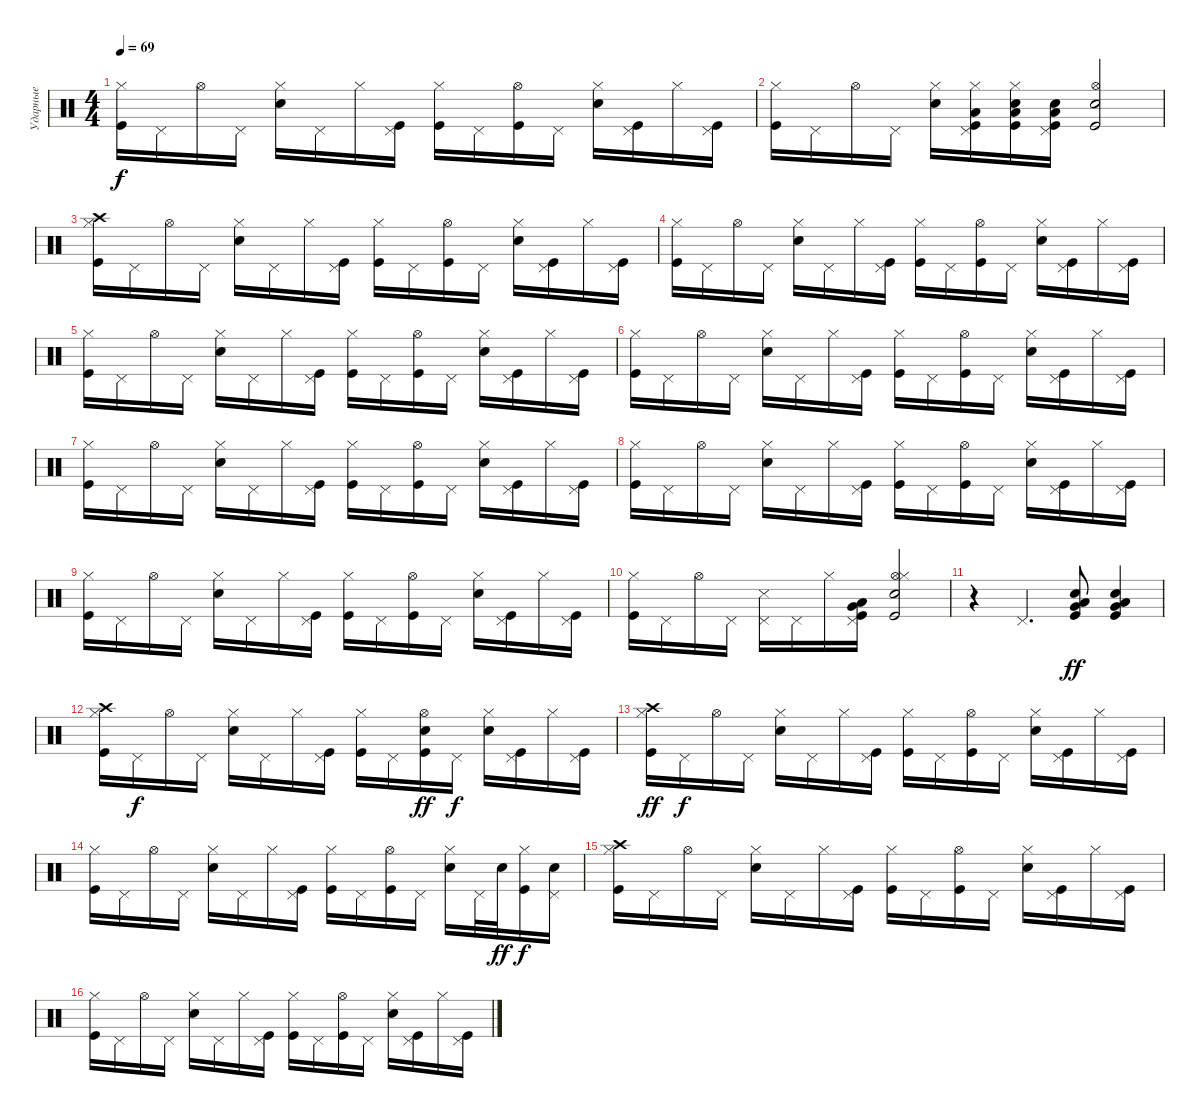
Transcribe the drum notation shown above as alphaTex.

\track ("Ударные" "Ударные") {instrument percussion}
\staff {score}
\articulation defaults
\ts (4 4)
\tempo 69
\clef neutral
\ks c
("Kick (hit)" "Hi-Hat (closed)").16{dy f} "Pedal Hi-Hat (hit)".16 "Hi-Hat (open)".16 "Pedal Hi-Hat (hit)".16 ("Snare (hit) 2" "Hi-Hat (closed)").16 "Pedal Hi-Hat (hit)".16 "Hi-Hat (closed)".16 ("Pedal Hi-Hat (hit)" "Kick (hit)").16 ("Kick (hit)" "Hi-Hat (closed)").16 "Pedal Hi-Hat (hit)".16 ("Kick (hit)" "Hi-Hat (open)").16 "Pedal Hi-Hat (hit)".16 ("Snare (hit) 2" "Hi-Hat (closed)").16 ("Pedal Hi-Hat (hit)" "Kick (hit)").16 "Hi-Hat (closed)".16 ("Pedal Hi-Hat (hit)" "Kick (hit)").16 |
("Kick (hit)" "Hi-Hat (closed)").16 "Pedal Hi-Hat (hit)".16 "Hi-Hat (open)".16 "Pedal Hi-Hat (hit)".16 ("Hi-Hat (closed)" "Snare (hit) 2").16 ("Hi-Hat (closed)" "Kick (hit)" "Pedal Hi-Hat (hit)" "Low Floor Tom (hit)").16 ("Hi-Hat (closed)" "Snare (hit) 2" "Low Floor Tom (hit)" "Kick (hit)").16 ("Pedal Hi-Hat (hit)" "Kick (hit)" "Snare (hit) 2" "Low Floor Tom (hit)").16 ("Hi-Hat (open)" "Snare (hit) 2" "Kick (hit)").2 |
("Kick (hit)" "Hi-Hat (closed)" "Crash high (hit)").16 "Pedal Hi-Hat (hit)".16 "Hi-Hat (open)".16 "Pedal Hi-Hat (hit)".16 ("Snare (hit) 2" "Hi-Hat (closed)").16 "Pedal Hi-Hat (hit)".16 "Hi-Hat (closed)".16 ("Pedal Hi-Hat (hit)" "Kick (hit)").16 ("Kick (hit)" "Hi-Hat (closed)").16 "Pedal Hi-Hat (hit)".16 ("Kick (hit)" "Hi-Hat (open)").16 "Pedal Hi-Hat (hit)".16 ("Snare (hit) 2" "Hi-Hat (closed)").16 ("Pedal Hi-Hat (hit)" "Kick (hit)").16 "Hi-Hat (closed)".16 ("Pedal Hi-Hat (hit)" "Kick (hit)").16 |
("Kick (hit)" "Hi-Hat (closed)").16 "Pedal Hi-Hat (hit)".16 "Hi-Hat (open)".16 "Pedal Hi-Hat (hit)".16 ("Snare (hit) 2" "Hi-Hat (closed)").16 "Pedal Hi-Hat (hit)".16 "Hi-Hat (closed)".16 ("Pedal Hi-Hat (hit)" "Kick (hit)").16 ("Kick (hit)" "Hi-Hat (closed)").16 "Pedal Hi-Hat (hit)".16 ("Kick (hit)" "Hi-Hat (open)").16 "Pedal Hi-Hat (hit)".16 ("Snare (hit) 2" "Hi-Hat (closed)").16 ("Pedal Hi-Hat (hit)" "Kick (hit)").16 "Hi-Hat (closed)".16 ("Pedal Hi-Hat (hit)" "Kick (hit)").16 |
("Kick (hit)" "Hi-Hat (closed)").16 "Pedal Hi-Hat (hit)".16 "Hi-Hat (open)".16 "Pedal Hi-Hat (hit)".16 ("Snare (hit) 2" "Hi-Hat (closed)").16 "Pedal Hi-Hat (hit)".16 "Hi-Hat (closed)".16 ("Pedal Hi-Hat (hit)" "Kick (hit)").16 ("Kick (hit)" "Hi-Hat (closed)").16 "Pedal Hi-Hat (hit)".16 ("Kick (hit)" "Hi-Hat (open)").16 "Pedal Hi-Hat (hit)".16 ("Snare (hit) 2" "Hi-Hat (closed)").16 ("Pedal Hi-Hat (hit)" "Kick (hit)").16 "Hi-Hat (closed)".16 ("Pedal Hi-Hat (hit)" "Kick (hit)").16 |
("Kick (hit)" "Hi-Hat (closed)").16 "Pedal Hi-Hat (hit)".16 "Hi-Hat (open)".16 "Pedal Hi-Hat (hit)".16 ("Snare (hit) 2" "Hi-Hat (closed)").16 "Pedal Hi-Hat (hit)".16 "Hi-Hat (closed)".16 ("Pedal Hi-Hat (hit)" "Kick (hit)").16 ("Kick (hit)" "Hi-Hat (closed)").16 "Pedal Hi-Hat (hit)".16 ("Kick (hit)" "Hi-Hat (open)").16 "Pedal Hi-Hat (hit)".16 ("Snare (hit) 2" "Hi-Hat (closed)").16 ("Pedal Hi-Hat (hit)" "Kick (hit)").16 "Hi-Hat (closed)".16 ("Pedal Hi-Hat (hit)" "Kick (hit)").16 |
("Kick (hit)" "Hi-Hat (closed)").16 "Pedal Hi-Hat (hit)".16 "Hi-Hat (open)".16 "Pedal Hi-Hat (hit)".16 ("Snare (hit) 2" "Hi-Hat (closed)").16 "Pedal Hi-Hat (hit)".16 "Hi-Hat (closed)".16 ("Pedal Hi-Hat (hit)" "Kick (hit)").16 ("Kick (hit)" "Hi-Hat (closed)").16 "Pedal Hi-Hat (hit)".16 ("Kick (hit)" "Hi-Hat (open)").16 "Pedal Hi-Hat (hit)".16 ("Snare (hit) 2" "Hi-Hat (closed)").16 ("Pedal Hi-Hat (hit)" "Kick (hit)").16 "Hi-Hat (closed)".16 ("Pedal Hi-Hat (hit)" "Kick (hit)").16 |
("Kick (hit)" "Hi-Hat (closed)").16 "Pedal Hi-Hat (hit)".16 "Hi-Hat (open)".16 "Pedal Hi-Hat (hit)".16 ("Snare (hit) 2" "Hi-Hat (closed)").16 "Pedal Hi-Hat (hit)".16 "Hi-Hat (closed)".16 ("Pedal Hi-Hat (hit)" "Kick (hit)").16 ("Kick (hit)" "Hi-Hat (closed)").16 "Pedal Hi-Hat (hit)".16 ("Kick (hit)" "Hi-Hat (open)").16 "Pedal Hi-Hat (hit)".16 ("Snare (hit) 2" "Hi-Hat (closed)").16 ("Pedal Hi-Hat (hit)" "Kick (hit)").16 "Hi-Hat (closed)".16 ("Pedal Hi-Hat (hit)" "Kick (hit)").16 |
("Kick (hit)" "Hi-Hat (closed)").16 "Pedal Hi-Hat (hit)".16 "Hi-Hat (open)".16 "Pedal Hi-Hat (hit)".16 ("Snare (hit) 2" "Hi-Hat (closed)").16 "Pedal Hi-Hat (hit)".16 "Hi-Hat (closed)".16 ("Pedal Hi-Hat (hit)" "Kick (hit)").16 ("Kick (hit)" "Hi-Hat (closed)").16 "Pedal Hi-Hat (hit)".16 ("Kick (hit)" "Hi-Hat (open)").16 "Pedal Hi-Hat (hit)".16 ("Snare (hit) 2" "Hi-Hat (closed)").16 ("Pedal Hi-Hat (hit)" "Kick (hit)").16 "Hi-Hat (closed)".16 ("Pedal Hi-Hat (hit)" "Kick (hit)").16 |
("Kick (hit)" "Hi-Hat (closed)").16 "Pedal Hi-Hat (hit)".16 "Hi-Hat (open)".16 "Pedal Hi-Hat (hit)".16 ("Snare (side stick) 3" "Pedal Hi-Hat (hit)").16 "Pedal Hi-Hat (hit)".16 "Hi-Hat (closed)".16 ("Pedal Hi-Hat (hit)" "Kick (hit)" "Very Low Tom (hit)" "Low Tom (hit)").16 ("Hi-Hat (open)" "Hi-Hat (closed)" "Snare (hit) 2" "Kick (hit)").2 |
r.4 "Pedal Hi-Hat (hit)".4{d} ("Low Floor Tom (hit)" "Very Low Tom (hit)" "Kick (hit)" "Snare (hit) 2").8{dy ff} ("Low Floor Tom (hit)" "Very Low Tom (hit)" "Kick (hit)" "Snare (hit) 2").4 |
("Kick (hit)" "Hi-Hat (closed)" "Crash high (hit)").16 "Pedal Hi-Hat (hit)".16{dy f} "Hi-Hat (open)".16 "Pedal Hi-Hat (hit)".16 ("Snare (hit) 2" "Hi-Hat (closed)").16 "Pedal Hi-Hat (hit)".16 "Hi-Hat (closed)".16 ("Pedal Hi-Hat (hit)" "Kick (hit)").16 ("Kick (hit)" "Hi-Hat (closed)").16 "Pedal Hi-Hat (hit)".16 ("Kick (hit)" "Hi-Hat (open)" "Snare (hit) 2").16{dy ff} "Pedal Hi-Hat (hit)".16{dy f} ("Snare (hit) 2" "Hi-Hat (closed)").16 ("Pedal Hi-Hat (hit)" "Kick (hit)").16 "Hi-Hat (closed)".16 ("Pedal Hi-Hat (hit)" "Kick (hit)").16 |
("Kick (hit)" "Hi-Hat (closed)" "Crash high (hit)").16{dy ff} "Pedal Hi-Hat (hit)".16{dy f} "Hi-Hat (open)".16 "Pedal Hi-Hat (hit)".16 ("Snare (hit) 2" "Hi-Hat (closed)").16 "Pedal Hi-Hat (hit)".16 "Hi-Hat (closed)".16 ("Pedal Hi-Hat (hit)" "Kick (hit)").16 ("Kick (hit)" "Hi-Hat (closed)").16 "Pedal Hi-Hat (hit)".16 ("Kick (hit)" "Hi-Hat (open)").16 "Pedal Hi-Hat (hit)".16 ("Snare (hit) 2" "Hi-Hat (closed)").16 ("Pedal Hi-Hat (hit)" "Kick (hit)").16 "Hi-Hat (closed)".16 ("Pedal Hi-Hat (hit)" "Kick (hit)").16 |
("Kick (hit)" "Hi-Hat (closed)").16 "Pedal Hi-Hat (hit)".16 "Hi-Hat (open)".16 "Pedal Hi-Hat (hit)".16 ("Snare (hit) 2" "Hi-Hat (closed)").16 "Pedal Hi-Hat (hit)".16 "Hi-Hat (closed)".16 ("Pedal Hi-Hat (hit)" "Kick (hit)").16 ("Kick (hit)" "Hi-Hat (closed)").16 "Pedal Hi-Hat (hit)".16 ("Kick (hit)" "Hi-Hat (open)").16 "Pedal Hi-Hat (hit)".16 ("Snare (hit) 2" "Hi-Hat (closed)").16 "Pedal Hi-Hat (hit)".32 "Snare (hit) 2".32{dy ff} ("Hi-Hat (closed)" "Kick (hit)").16{dy f} ("Pedal Hi-Hat (hit)" "Snare (hit) 2").16 |
("Kick (hit)" "Hi-Hat (closed)" "Crash high (hit)").16 "Pedal Hi-Hat (hit)".16 "Hi-Hat (open)".16 "Pedal Hi-Hat (hit)".16 ("Snare (hit) 2" "Hi-Hat (closed)").16 "Pedal Hi-Hat (hit)".16 "Hi-Hat (closed)".16 ("Pedal Hi-Hat (hit)" "Kick (hit)").16 ("Kick (hit)" "Hi-Hat (closed)").16 "Pedal Hi-Hat (hit)".16 ("Kick (hit)" "Hi-Hat (open)").16 "Pedal Hi-Hat (hit)".16 ("Snare (hit) 2" "Hi-Hat (closed)").16 ("Pedal Hi-Hat (hit)" "Kick (hit)").16 "Hi-Hat (closed)".16 ("Pedal Hi-Hat (hit)" "Kick (hit)").16 |
("Kick (hit)" "Hi-Hat (closed)").16 "Pedal Hi-Hat (hit)".16 "Hi-Hat (open)".16 "Pedal Hi-Hat (hit)".16 ("Snare (hit) 2" "Hi-Hat (closed)").16 "Pedal Hi-Hat (hit)".16 "Hi-Hat (closed)".16 ("Pedal Hi-Hat (hit)" "Kick (hit)").16 ("Kick (hit)" "Hi-Hat (closed)").16 "Pedal Hi-Hat (hit)".16 ("Kick (hit)" "Hi-Hat (open)").16 "Pedal Hi-Hat (hit)".16 ("Snare (hit) 2" "Hi-Hat (closed)").16 ("Pedal Hi-Hat (hit)" "Kick (hit)").16 "Hi-Hat (closed)".16 ("Pedal Hi-Hat (hit)" "Kick (hit)").16
